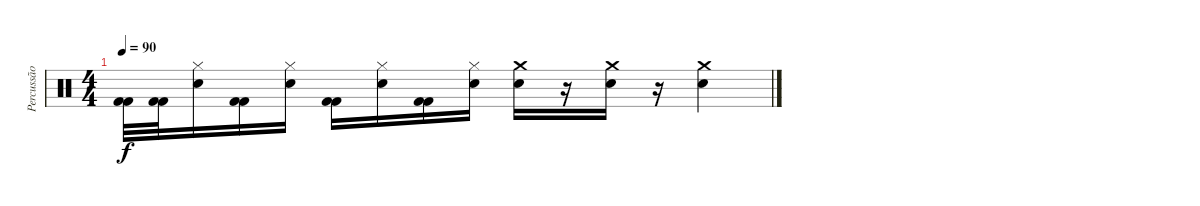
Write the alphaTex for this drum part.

\track ("Percussão" "Percussão") {instrument percussion}
\staff {score}
\articulation defaults
\ts (4 4)
\tempo 90
\clef neutral
\ks c
("Kick (hit) 2" "Kick (hit) 2").32{dy f} ("Kick (hit) 2" "Kick (hit) 2").32 ("Hi-Hat (closed)" "Snare (hit) 2").16 ("Kick (hit) 2" "Kick (hit) 2").16 ("Hi-Hat (closed)" "Snare (hit) 2").16 ("Kick (hit) 2" "Kick (hit) 2").16 ("Hi-Hat (closed)" "Snare (hit) 2").16 ("Kick (hit) 2" "Kick (hit) 2").16 ("Hi-Hat (closed)" "Snare (hit) 2").16 ("Crash medium (hit)" "Snare (hit) 2").16 r.16 ("Crash medium (hit)" "Snare (hit) 2").16 r.16 ("Crash medium (hit)" "Snare (hit) 2").4
